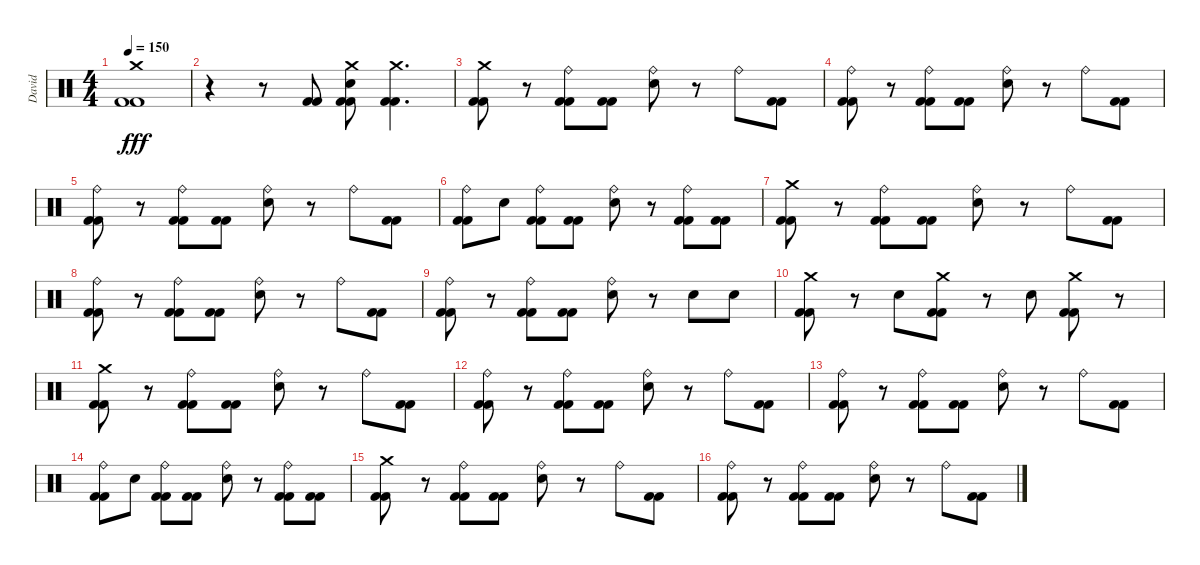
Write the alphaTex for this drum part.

\track ("David" "David") {instrument percussion}
\staff {score}
\articulation defaults
\ts (4 4)
\tempo 150
\clef neutral
\ks c
("Crash medium (hit)" "Kick (hit) 2" "Kick (hit) 2").1{dy fff} |
r.4 r.8 ("Kick (hit) 2" "Kick (hit) 2").8 ("Crash medium (hit)" "Electric Snare (hit)" "Kick (hit) 2" "Kick (hit) 2").8 ("Crash medium (hit)" "Kick (hit) 2" "Kick (hit) 2").4{d} |
("Crash medium (hit)" "Kick (hit) 2" "Kick (hit) 2").8 r.8 ("Ride (bell)" "Kick (hit) 2" "Kick (hit) 2").8 ("Kick (hit) 2" "Kick (hit) 2").8 ("Ride (bell)" "Electric Snare (hit)").8 r.8 "Ride (bell)".8 ("Kick (hit) 2" "Kick (hit) 2").8 |
("Ride (bell)" "Kick (hit) 2" "Kick (hit) 2").8 r.8 ("Ride (bell)" "Kick (hit) 2" "Kick (hit) 2").8 ("Kick (hit) 2" "Kick (hit) 2").8 ("Ride (bell)" "Electric Snare (hit)").8 r.8 "Ride (bell)".8 ("Kick (hit) 2" "Kick (hit) 2").8 |
("Ride (bell)" "Kick (hit) 2" "Kick (hit) 2").8 r.8 ("Ride (bell)" "Kick (hit) 2" "Kick (hit) 2").8 ("Kick (hit) 2" "Kick (hit) 2").8 ("Ride (bell)" "Electric Snare (hit)").8 r.8 "Ride (bell)".8 ("Kick (hit) 2" "Kick (hit) 2").8 |
("Ride (bell)" "Kick (hit) 2" "Kick (hit) 2").8 "Electric Snare (hit)".8 ("Ride (bell)" "Kick (hit) 2" "Kick (hit) 2").8 ("Kick (hit) 2" "Kick (hit) 2").8 ("Ride (bell)" "Electric Snare (hit)").8 r.8 ("Ride (bell)" "Kick (hit) 2" "Kick (hit) 2").8 ("Kick (hit) 2" "Kick (hit) 2").8 |
("Crash medium (hit)" "Kick (hit) 2" "Kick (hit) 2").8 r.8 ("Ride (bell)" "Kick (hit) 2" "Kick (hit) 2").8 ("Kick (hit) 2" "Kick (hit) 2").8 ("Ride (bell)" "Electric Snare (hit)").8 r.8 "Ride (bell)".8 ("Kick (hit) 2" "Kick (hit) 2").8 |
("Ride (bell)" "Kick (hit) 2" "Kick (hit) 2").8 r.8 ("Ride (bell)" "Kick (hit) 2" "Kick (hit) 2").8 ("Kick (hit) 2" "Kick (hit) 2").8 ("Ride (bell)" "Electric Snare (hit)").8 r.8 "Ride (bell)".8 ("Kick (hit) 2" "Kick (hit) 2").8 |
("Ride (bell)" "Kick (hit) 2" "Kick (hit) 2").8 r.8 ("Ride (bell)" "Kick (hit) 2" "Kick (hit) 2").8 ("Kick (hit) 2" "Kick (hit) 2").8 ("Ride (bell)" "Electric Snare (hit)").8 r.8 "Electric Snare (hit)".8 "Electric Snare (hit)".8 |
("Crash medium (hit)" "Kick (hit) 2" "Kick (hit) 2").8 r.8 "Electric Snare (hit)".8 ("Crash medium (hit)" "Kick (hit) 2" "Kick (hit) 2").8 r.8 "Electric Snare (hit)".8 ("Crash medium (hit)" "Kick (hit) 2" "Kick (hit) 2").8 r.8 |
("Crash medium (hit)" "Kick (hit) 2" "Kick (hit) 2").8 r.8 ("Ride (bell)" "Kick (hit) 2" "Kick (hit) 2").8 ("Kick (hit) 2" "Kick (hit) 2").8 ("Ride (bell)" "Electric Snare (hit)").8 r.8 "Ride (bell)".8 ("Kick (hit) 2" "Kick (hit) 2").8 |
("Ride (bell)" "Kick (hit) 2" "Kick (hit) 2").8 r.8 ("Ride (bell)" "Kick (hit) 2" "Kick (hit) 2").8 ("Kick (hit) 2" "Kick (hit) 2").8 ("Ride (bell)" "Electric Snare (hit)").8 r.8 "Ride (bell)".8 ("Kick (hit) 2" "Kick (hit) 2").8 |
("Ride (bell)" "Kick (hit) 2" "Kick (hit) 2").8 r.8 ("Ride (bell)" "Kick (hit) 2" "Kick (hit) 2").8 ("Kick (hit) 2" "Kick (hit) 2").8 ("Ride (bell)" "Electric Snare (hit)").8 r.8 "Ride (bell)".8 ("Kick (hit) 2" "Kick (hit) 2").8 |
("Ride (bell)" "Kick (hit) 2" "Kick (hit) 2").8 "Electric Snare (hit)".8 ("Ride (bell)" "Kick (hit) 2" "Kick (hit) 2").8 ("Kick (hit) 2" "Kick (hit) 2").8 ("Ride (bell)" "Electric Snare (hit)").8 r.8 ("Ride (bell)" "Kick (hit) 2" "Kick (hit) 2").8 ("Kick (hit) 2" "Kick (hit) 2").8 |
("Crash medium (hit)" "Kick (hit) 2" "Kick (hit) 2").8 r.8 ("Ride (bell)" "Kick (hit) 2" "Kick (hit) 2").8 ("Kick (hit) 2" "Kick (hit) 2").8 ("Ride (bell)" "Electric Snare (hit)").8 r.8 "Ride (bell)".8 ("Kick (hit) 2" "Kick (hit) 2").8 |
("Ride (bell)" "Kick (hit) 2" "Kick (hit) 2").8 r.8 ("Ride (bell)" "Kick (hit) 2" "Kick (hit) 2").8 ("Kick (hit) 2" "Kick (hit) 2").8 ("Ride (bell)" "Electric Snare (hit)").8 r.8 "Ride (bell)".8 ("Kick (hit) 2" "Kick (hit) 2").8
